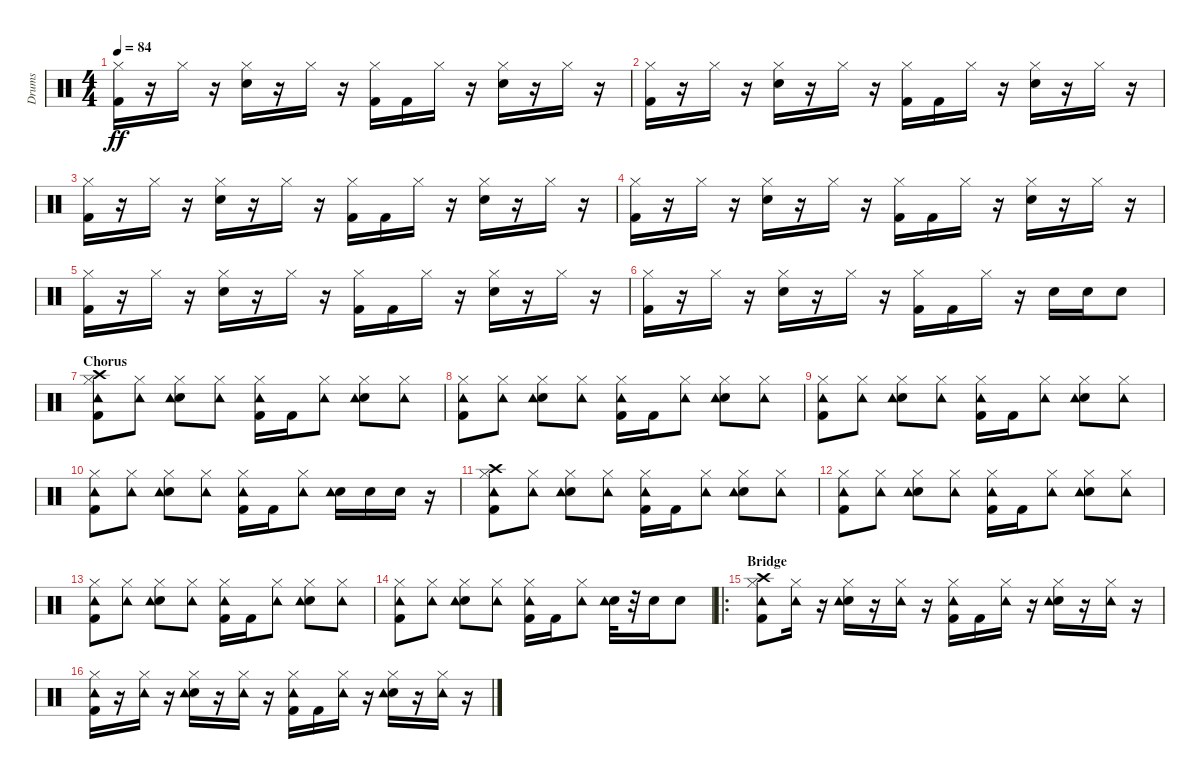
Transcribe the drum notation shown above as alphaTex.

\track ("Drums" "Drums") {instrument percussion}
\staff {score}
\articulation defaults
\ts (4 4)
\tempo 84
\clef neutral
\ks c
("Kick (hit) 2" "Hi-Hat (closed)").16{dy ff} r.16 "Hi-Hat (closed)".16 r.16 ("Snare (hit) 2" "Hi-Hat (closed)").16 r.16 "Hi-Hat (closed)".16 r.16 ("Kick (hit) 2" "Hi-Hat (closed)").16 "Kick (hit) 2".16 "Hi-Hat (closed)".16 r.16 ("Snare (hit) 2" "Hi-Hat (closed)").16 r.16 "Hi-Hat (closed)".16 r.16 |
("Kick (hit) 2" "Hi-Hat (closed)").16 r.16 "Hi-Hat (closed)".16 r.16 ("Snare (hit) 2" "Hi-Hat (closed)").16 r.16 "Hi-Hat (closed)".16 r.16 ("Kick (hit) 2" "Hi-Hat (closed)").16 "Kick (hit) 2".16 "Hi-Hat (closed)".16 r.16 ("Snare (hit) 2" "Hi-Hat (closed)").16 r.16 "Hi-Hat (closed)".16 r.16 |
("Kick (hit) 2" "Hi-Hat (closed)").16 r.16 "Hi-Hat (closed)".16 r.16 ("Snare (hit) 2" "Hi-Hat (closed)").16 r.16 "Hi-Hat (closed)".16 r.16 ("Kick (hit) 2" "Hi-Hat (closed)").16 "Kick (hit) 2".16 "Hi-Hat (closed)".16 r.16 ("Snare (hit) 2" "Hi-Hat (closed)").16 r.16 "Hi-Hat (closed)".16 r.16 |
("Kick (hit) 2" "Hi-Hat (closed)").16 r.16 "Hi-Hat (closed)".16 r.16 ("Snare (hit) 2" "Hi-Hat (closed)").16 r.16 "Hi-Hat (closed)".16 r.16 ("Kick (hit) 2" "Hi-Hat (closed)").16 "Kick (hit) 2".16 "Hi-Hat (closed)".16 r.16 ("Snare (hit) 2" "Hi-Hat (closed)").16 r.16 "Hi-Hat (closed)".16 r.16 |
("Kick (hit) 2" "Hi-Hat (closed)").16 r.16 "Hi-Hat (closed)".16 r.16 ("Snare (hit) 2" "Hi-Hat (closed)").16 r.16 "Hi-Hat (closed)".16 r.16 ("Kick (hit) 2" "Hi-Hat (closed)").16 "Kick (hit) 2".16 "Hi-Hat (closed)".16 r.16 ("Snare (hit) 2" "Hi-Hat (closed)").16 r.16 "Hi-Hat (closed)".16 r.16 |
("Kick (hit) 2" "Hi-Hat (closed)").16 r.16 "Hi-Hat (closed)".16 r.16 ("Snare (hit) 2" "Hi-Hat (closed)").16 r.16 "Hi-Hat (closed)".16 r.16 ("Kick (hit) 2" "Hi-Hat (closed)").16 "Kick (hit) 2".16 "Hi-Hat (closed)".16 r.16 "Snare (hit) 2".16 "Snare (hit) 2".16 "Snare (hit) 2".8 |
\section ("" "Chorus")
("Kick (hit) 2" "Hi-Hat (closed)" "Crash high (hit)" "Tambourine (hit)").8 ("Hi-Hat (closed)" "Tambourine (hit)").8 ("Snare (hit) 2" "Hi-Hat (closed)" "Tambourine (hit)").8 ("Hi-Hat (closed)" "Tambourine (hit)").8 ("Kick (hit) 2" "Hi-Hat (closed)" "Tambourine (hit)").16 "Kick (hit) 2".16 ("Hi-Hat (closed)" "Tambourine (hit)").8 ("Snare (hit) 2" "Hi-Hat (closed)" "Tambourine (hit)").8 ("Tambourine (hit)" "Hi-Hat (closed)").8 |
("Kick (hit) 2" "Hi-Hat (closed)" "Tambourine (hit)").8 ("Hi-Hat (closed)" "Tambourine (hit)").8 ("Snare (hit) 2" "Hi-Hat (closed)" "Tambourine (hit)").8 ("Hi-Hat (closed)" "Tambourine (hit)").8 ("Kick (hit) 2" "Hi-Hat (closed)" "Tambourine (hit)").16 "Kick (hit) 2".16 ("Hi-Hat (closed)" "Tambourine (hit)").8 ("Snare (hit) 2" "Hi-Hat (closed)" "Tambourine (hit)").8 ("Tambourine (hit)" "Hi-Hat (closed)").8 |
("Kick (hit) 2" "Hi-Hat (closed)" "Tambourine (hit)").8 ("Hi-Hat (closed)" "Tambourine (hit)").8 ("Snare (hit) 2" "Hi-Hat (closed)" "Tambourine (hit)").8 ("Hi-Hat (closed)" "Tambourine (hit)").8 ("Kick (hit) 2" "Hi-Hat (closed)" "Tambourine (hit)").16 "Kick (hit) 2".16 ("Hi-Hat (closed)" "Tambourine (hit)").8 ("Snare (hit) 2" "Hi-Hat (closed)" "Tambourine (hit)").8 ("Tambourine (hit)" "Hi-Hat (closed)").8 |
("Kick (hit) 2" "Hi-Hat (closed)" "Tambourine (hit)").8 ("Hi-Hat (closed)" "Tambourine (hit)").8 ("Snare (hit) 2" "Hi-Hat (closed)" "Tambourine (hit)").8 ("Hi-Hat (closed)" "Tambourine (hit)").8 ("Kick (hit) 2" "Hi-Hat (closed)" "Tambourine (hit)").16 "Kick (hit) 2".16 ("Hi-Hat (closed)" "Tambourine (hit)").8 ("Snare (hit) 2" "Tambourine (hit)").16 "Snare (hit) 2".16 "Snare (hit) 2".16 r.16 |
("Kick (hit) 2" "Hi-Hat (closed)" "Crash high (hit)" "Tambourine (hit)").8 ("Hi-Hat (closed)" "Tambourine (hit)").8 ("Snare (hit) 2" "Hi-Hat (closed)" "Tambourine (hit)").8 ("Hi-Hat (closed)" "Tambourine (hit)").8 ("Kick (hit) 2" "Hi-Hat (closed)" "Tambourine (hit)").16 "Kick (hit) 2".16 ("Hi-Hat (closed)" "Tambourine (hit)").8 ("Snare (hit) 2" "Hi-Hat (closed)" "Tambourine (hit)").8 ("Tambourine (hit)" "Hi-Hat (closed)").8 |
("Kick (hit) 2" "Hi-Hat (closed)" "Tambourine (hit)").8 ("Hi-Hat (closed)" "Tambourine (hit)").8 ("Snare (hit) 2" "Hi-Hat (closed)" "Tambourine (hit)").8 ("Hi-Hat (closed)" "Tambourine (hit)").8 ("Kick (hit) 2" "Hi-Hat (closed)" "Tambourine (hit)").16 "Kick (hit) 2".16 ("Hi-Hat (closed)" "Tambourine (hit)").8 ("Snare (hit) 2" "Hi-Hat (closed)" "Tambourine (hit)").8 ("Tambourine (hit)" "Hi-Hat (closed)").8 |
("Kick (hit) 2" "Hi-Hat (closed)" "Tambourine (hit)").8 ("Hi-Hat (closed)" "Tambourine (hit)").8 ("Snare (hit) 2" "Hi-Hat (closed)" "Tambourine (hit)").8 ("Hi-Hat (closed)" "Tambourine (hit)").8 ("Kick (hit) 2" "Hi-Hat (closed)" "Tambourine (hit)").16 "Kick (hit) 2".16 ("Hi-Hat (closed)" "Tambourine (hit)").8 ("Snare (hit) 2" "Hi-Hat (closed)" "Tambourine (hit)").8 ("Tambourine (hit)" "Hi-Hat (closed)").8 |
("Kick (hit) 2" "Hi-Hat (closed)" "Tambourine (hit)").8 ("Hi-Hat (closed)" "Tambourine (hit)").8 ("Snare (hit) 2" "Hi-Hat (closed)" "Tambourine (hit)").8 ("Hi-Hat (closed)" "Tambourine (hit)").8 ("Kick (hit) 2" "Hi-Hat (closed)" "Tambourine (hit)").16 "Kick (hit) 2".16 ("Hi-Hat (closed)" "Tambourine (hit)").8 ("Snare (hit) 2" "Tambourine (hit)").32 r.32 "Snare (hit) 2".16 "Snare (hit) 2".8 |
\ro
\section ("" "Bridge")
("Kick (hit) 2" "Hi-Hat (closed)" "Crash high (hit)" "Tambourine (hit)").8 ("Hi-Hat (closed)" "Tambourine (hit)").16 r.16 ("Snare (hit) 2" "Hi-Hat (closed)" "Tambourine (hit)").16 r.16 ("Hi-Hat (closed)" "Tambourine (hit)").16 r.16 ("Kick (hit) 2" "Hi-Hat (closed)" "Tambourine (hit)").16 "Kick (hit) 2".16 ("Hi-Hat (closed)" "Tambourine (hit)").16 r.16 ("Snare (hit) 2" "Hi-Hat (closed)" "Tambourine (hit)").16 r.16 ("Hi-Hat (closed)" "Tambourine (hit)").16 r.16 |
("Kick (hit) 2" "Hi-Hat (closed)" "Tambourine (hit)").16 r.16 ("Hi-Hat (closed)" "Tambourine (hit)").16 r.16 ("Snare (hit) 2" "Hi-Hat (closed)" "Tambourine (hit)").16 r.16 ("Hi-Hat (closed)" "Tambourine (hit)").16 r.16 ("Kick (hit) 2" "Hi-Hat (closed)" "Tambourine (hit)").16 "Kick (hit) 2".16 ("Hi-Hat (closed)" "Tambourine (hit)").16 r.16 ("Snare (hit) 2" "Hi-Hat (closed)" "Tambourine (hit)").16 r.16 ("Hi-Hat (closed)" "Tambourine (hit)").16 r.16
